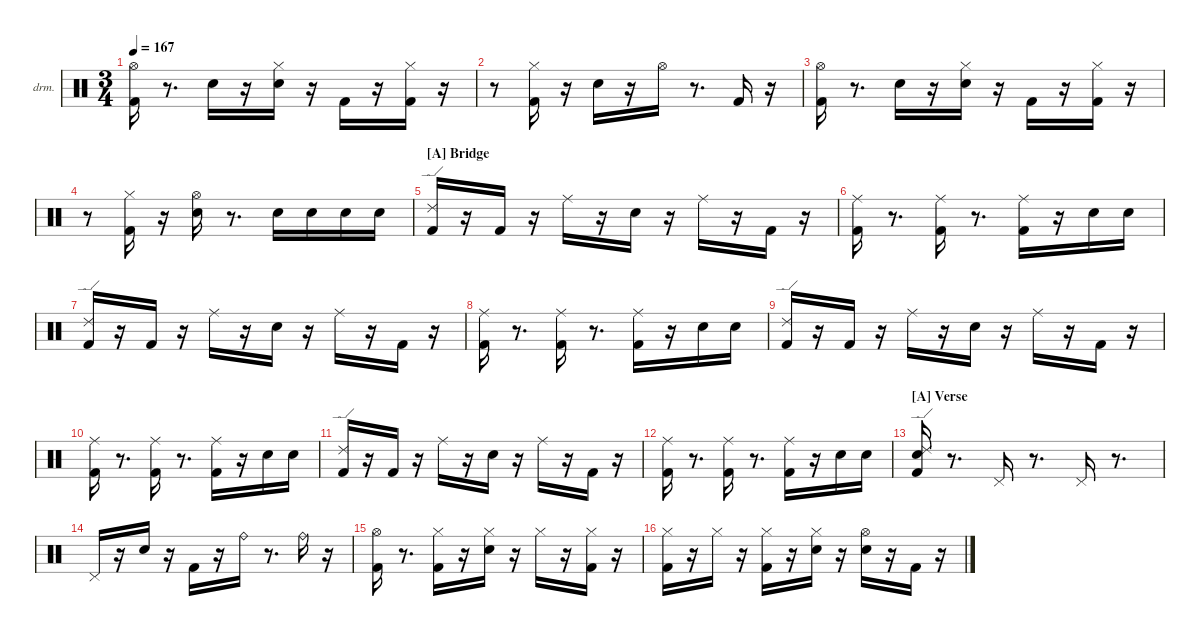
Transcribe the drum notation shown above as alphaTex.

\hideDynamics
\bracketExtendMode nobrackets
\firstSystemTrackNameOrientation horizontal
\otherSystemsTrackNameOrientation horizontal
\track ("Drums" "drm.") {instrument percussion}
\staff {score}
\articulation defaults
\ts (3 4)
\tempo 167
\clef neutral
\ks aminor
("Kick (hit) 2" "Hi-Hat (open)"{acc #}).16{dy ff} r.8{d} "Snare (hit) 2".16{dy pp} r.16 ("Snare (hit) 2" "Hi-Hat (closed)"{acc #}).16{dy ppp} r.16 "Kick (hit) 2".16{dy mf} r.16 ("Kick (hit) 2" "Hi-Hat (closed)"{acc #}).16{dy ff} r.16 |
r.8 ("Kick (hit) 2" "Hi-Hat (closed)"{acc #}).16{dy fff} r.16 "Snare (hit) 2".16{dy ff} r.16 "Hi-Hat (open)"{acc #}.16 r.8{d} "Kick (hit) 2".16{dy f} r.16 |
("Kick (hit) 2" "Hi-Hat (open)"{acc #}).16{dy ff} r.8{d} "Snare (hit) 2".16{dy pp} r.16 ("Snare (hit) 2" "Hi-Hat (closed)"{acc #}).16{dy ppp} r.16 "Kick (hit) 2".16{dy mf} r.16 ("Kick (hit) 2" "Hi-Hat (closed)"{acc #}).16{dy ff} r.16 |
r.8 ("Kick (hit) 2" "Hi-Hat (closed)"{acc #}).16{dy fff} r.16 ("Snare (hit) 2" "Hi-Hat (open)"{acc #}).16 r.8{d} "Snare (hit) 2".16{dy p} "Snare (hit) 2".16{dy ppp} "Snare (hit) 2".16{dy p} "Snare (hit) 2".16{dy ppp} |
\section ("A" "Bridge")
("Kick (hit) 2" "Ride (edge) 2").16{dy f} r.16 "Kick (hit) 2".16{dy fff} r.16 "Ride (middle)"{acc #}.16{dy mf} r.16 "Snare (hit) 2".16{dy fff} r.16 "Ride (middle)"{acc #}.16{dy f} r.16 "Kick (hit) 2".16 r.16 |
("Kick (hit) 2" "Ride (middle)"{acc #}).16{dy ff} r.8{d} ("Kick (hit) 2" "Ride (middle)"{acc #}).16{dy mf} r.8{d} ("Kick (hit) 2" "Ride (middle)"{acc #}).16{dy ff} r.16 "Snare (hit) 2".16{dy mf} "Snare (hit) 2".16{dy ppp} |
("Kick (hit) 2" "Ride (edge) 2").16{dy f} r.16 "Kick (hit) 2".16{dy fff} r.16 "Ride (middle)"{acc #}.16{dy mf} r.16 "Snare (hit) 2".16{dy fff} r.16 "Ride (middle)"{acc #}.16{dy f} r.16 "Kick (hit) 2".16 r.16 |
("Kick (hit) 2" "Ride (middle)"{acc #}).16{dy ff} r.8{d} ("Kick (hit) 2" "Ride (middle)"{acc #}).16{dy mf} r.8{d} ("Kick (hit) 2" "Ride (middle)"{acc #}).16{dy ff} r.16 "Snare (hit) 2".16{dy mf} "Snare (hit) 2".16{dy ppp} |
("Kick (hit) 2" "Ride (edge) 2").16{dy f} r.16 "Kick (hit) 2".16{dy fff} r.16 "Ride (middle)"{acc #}.16{dy mf} r.16 "Snare (hit) 2".16{dy fff} r.16 "Ride (middle)"{acc #}.16{dy f} r.16 "Kick (hit) 2".16 r.16 |
("Kick (hit) 2" "Ride (middle)"{acc #}).16{dy ff} r.8{d} ("Kick (hit) 2" "Ride (middle)"{acc #}).16{dy mf} r.8{d} ("Kick (hit) 2" "Ride (middle)"{acc #}).16{dy ff} r.16 "Snare (hit) 2".16{dy mf} "Snare (hit) 2".16{dy ppp} |
("Kick (hit) 2" "Ride (edge) 2").16{dy f} r.16 "Kick (hit) 2".16{dy fff} r.16 "Ride (middle)"{acc #}.16{dy mf} r.16 "Snare (hit) 2".16{dy fff} r.16 "Ride (middle)"{acc #}.16{dy f} r.16 "Kick (hit) 2".16 r.16 |
("Kick (hit) 2" "Ride (middle)"{acc #}).16{dy ff} r.8{d} ("Kick (hit) 2" "Ride (middle)"{acc #}).16{dy mf} r.8{d} ("Kick (hit) 2" "Ride (middle)"{acc #}).16{dy ff} r.16 "Snare (hit) 2".16{dy mf} "Snare (hit) 2".16{dy ppp} |
\section ("A" "Verse")
("Kick (hit) 2" "Snare (hit) 2" "Ride (edge) 2").16{dy fff} r.8{d} "Pedal Hi-Hat (hit)"{acc #}.16 r.8{d} "Pedal Hi-Hat (hit)"{acc #}.16 r.8{d} |
"Pedal Hi-Hat (hit)"{acc #}.16 r.16 "Snare (hit) 2".16{dy ff} r.16 "Kick (hit) 2".16 r.16 "Ride (bell)".16 r.8{d} "Ride (bell)".16{dy f} r.16 |
("Kick (hit) 2" "Hi-Hat (open)"{acc #}).16{dy ff} r.8{d} ("Kick (hit) 2" "Hi-Hat (closed)"{acc #}).16{dy f} r.16 ("Snare (hit) 2" "Hi-Hat (closed)"{acc #}).16{dy ff} r.16 "Hi-Hat (closed)"{acc #}.16 r.16 ("Kick (hit) 2" "Hi-Hat (closed)"{acc #}).16{dy mf} r.16 |
("Kick (hit) 2" "Hi-Hat (closed)"{acc #}).16{dy fff} r.16 "Hi-Hat (closed)"{acc #}.16{dy p} r.16 ("Kick (hit) 2" "Hi-Hat (closed)"{acc #}).16{dy ff} r.16 ("Snare (hit) 2" "Hi-Hat (closed)"{acc #}).16 r.16 ("Snare (hit) 2" "Hi-Hat (open)"{acc #}).16{dy ppp} r.16 "Kick (hit) 2".16{dy ff} r.16
